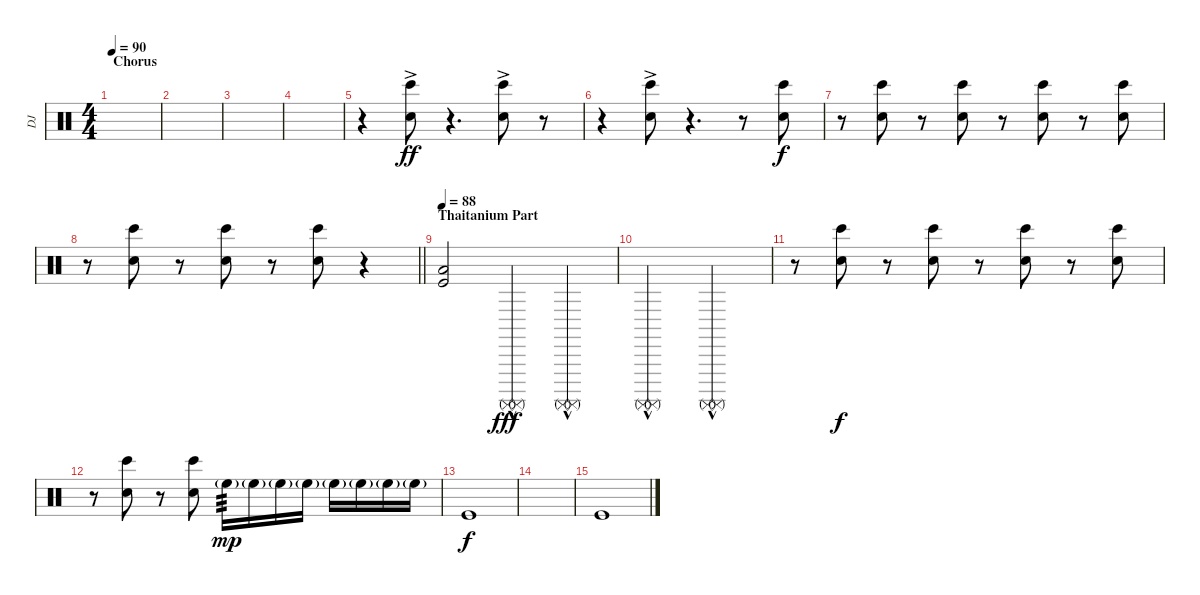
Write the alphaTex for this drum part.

\track ("DJ" "DJ") {instrument percussion}
\staff {score}
\articulation defaults
\ts (4 4)
\section ("" "Chorus")
\tempo 90
\clef neutral
\ks c
|
|
|
|
r.4 ("Bongo High (hit)"{ac} "Hand Clap (hit)"{ac}).8{dy ff} r.4{d} ("Bongo High (hit)"{ac} "Hand Clap (hit)"{ac}).8 r.8 |
r.4 ("Bongo High (hit)"{ac} "Hand Clap (hit)"{ac}).8 r.4{d} r.8 ("Bongo High (hit)" "Hand Clap (hit)").8{dy f} |
r.8 ("Bongo High (hit)" "Hand Clap (hit)").8 r.8 ("Bongo High (hit)" "Hand Clap (hit)").8 r.8 ("Bongo High (hit)" "Hand Clap (hit)").8 r.8 ("Bongo High (hit)" "Hand Clap (hit)").8 |
\barLineRight lightlight
r.8 ("Bongo High (hit)" "Hand Clap (hit)").8 r.8 ("Bongo High (hit)" "Hand Clap (hit)").8 r.8 ("Bongo High (hit)" "Hand Clap (hit)").8 r.4 |
\section ("" "Thaitanium Part")
\tempo 88
("Low Floor Tom (hit)" "Kick (hit)").2 ("Surdo (mute)"{hac} "Surdo (mute)"{hac}).4{dy fff} ("Surdo (mute)"{hac} "Surdo (mute)"{hac}).4 |
("Surdo (mute)"{hac} "Surdo (mute)"{hac}).2 ("Surdo (mute)"{hac} "Surdo (mute)"{hac}).2 |
r.8 ("Bongo High (hit)" "Hand Clap (hit)").8{dy f} r.8 ("Bongo High (hit)" "Hand Clap (hit)").8 r.8 ("Bongo High (hit)" "Hand Clap (hit)").8 r.8 ("Bongo High (hit)" "Hand Clap (hit)").8 |
r.8 ("Bongo High (hit)" "Hand Clap (hit)").8 r.8 ("Bongo High (hit)" "Hand Clap (hit)").8 "High Floor Tom (hit)"{g}.16{tp 3 dy mp} "High Floor Tom (hit)"{g}.16 "High Floor Tom (hit)"{g}.16 "High Floor Tom (hit)"{g}.16 "High Floor Tom (hit)"{g}.16 "High Floor Tom (hit)"{g}.16 "High Floor Tom (hit)"{g}.16 "High Floor Tom (hit)"{g}.16 |
"Kick (hit)".1{dy f} |
|
"Kick (hit)".1
